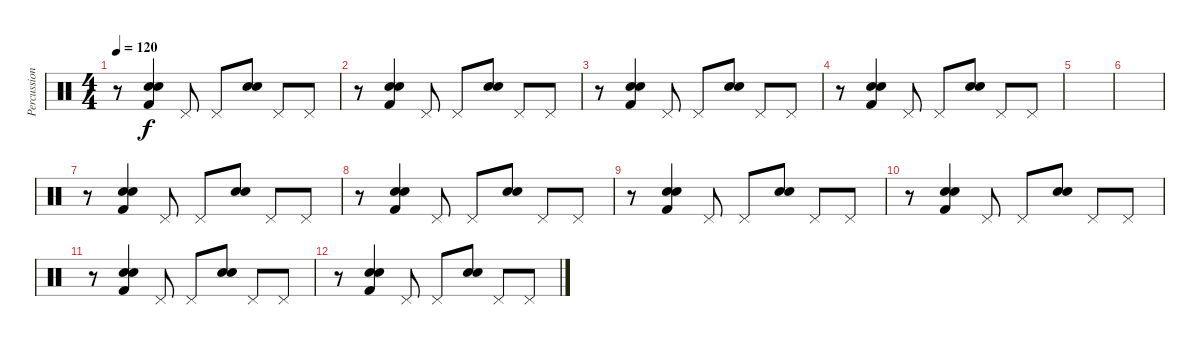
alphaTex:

\track ("Percussions" "Percussion") {instrument percussion}
\staff {score}
\articulation defaults
\ts (4 4)
\tempo 120
\clef neutral
\ks c
r.8{dy f} ("Kick (hit) 2" "Snare (hit) 2" "Snare (hit) 2").4 "Pedal Hi-Hat (hit)".8 "Pedal Hi-Hat (hit)".8 ("Snare (hit) 2" "Snare (hit) 2").8 "Pedal Hi-Hat (hit)".8 "Pedal Hi-Hat (hit)".8 |
r.8 ("Kick (hit) 2" "Snare (hit) 2" "Snare (hit) 2").4 "Pedal Hi-Hat (hit)".8 "Pedal Hi-Hat (hit)".8 ("Snare (hit) 2" "Snare (hit) 2").8 "Pedal Hi-Hat (hit)".8 "Pedal Hi-Hat (hit)".8 |
r.8 ("Kick (hit) 2" "Snare (hit) 2" "Snare (hit) 2").4 "Pedal Hi-Hat (hit)".8 "Pedal Hi-Hat (hit)".8 ("Snare (hit) 2" "Snare (hit) 2").8 "Pedal Hi-Hat (hit)".8 "Pedal Hi-Hat (hit)".8 |
r.8 ("Kick (hit) 2" "Snare (hit) 2" "Snare (hit) 2").4 "Pedal Hi-Hat (hit)".8 "Pedal Hi-Hat (hit)".8 ("Snare (hit) 2" "Snare (hit) 2").8 "Pedal Hi-Hat (hit)".8 "Pedal Hi-Hat (hit)".8 |
|
|
r.8 ("Kick (hit) 2" "Snare (hit) 2" "Snare (hit) 2").4 "Pedal Hi-Hat (hit)".8 "Pedal Hi-Hat (hit)".8 ("Snare (hit) 2" "Snare (hit) 2").8 "Pedal Hi-Hat (hit)".8 "Pedal Hi-Hat (hit)".8 |
r.8 ("Kick (hit) 2" "Snare (hit) 2" "Snare (hit) 2").4 "Pedal Hi-Hat (hit)".8 "Pedal Hi-Hat (hit)".8 ("Snare (hit) 2" "Snare (hit) 2").8 "Pedal Hi-Hat (hit)".8 "Pedal Hi-Hat (hit)".8 |
r.8 ("Kick (hit) 2" "Snare (hit) 2" "Snare (hit) 2").4 "Pedal Hi-Hat (hit)".8 "Pedal Hi-Hat (hit)".8 ("Snare (hit) 2" "Snare (hit) 2").8 "Pedal Hi-Hat (hit)".8 "Pedal Hi-Hat (hit)".8 |
r.8 ("Kick (hit) 2" "Snare (hit) 2" "Snare (hit) 2").4 "Pedal Hi-Hat (hit)".8 "Pedal Hi-Hat (hit)".8 ("Snare (hit) 2" "Snare (hit) 2").8 "Pedal Hi-Hat (hit)".8 "Pedal Hi-Hat (hit)".8 |
r.8 ("Kick (hit) 2" "Snare (hit) 2" "Snare (hit) 2").4 "Pedal Hi-Hat (hit)".8 "Pedal Hi-Hat (hit)".8 ("Snare (hit) 2" "Snare (hit) 2").8 "Pedal Hi-Hat (hit)".8 "Pedal Hi-Hat (hit)".8 |
r.8 ("Kick (hit) 2" "Snare (hit) 2" "Snare (hit) 2").4 "Pedal Hi-Hat (hit)".8 "Pedal Hi-Hat (hit)".8 ("Snare (hit) 2" "Snare (hit) 2").8 "Pedal Hi-Hat (hit)".8 "Pedal Hi-Hat (hit)".8
